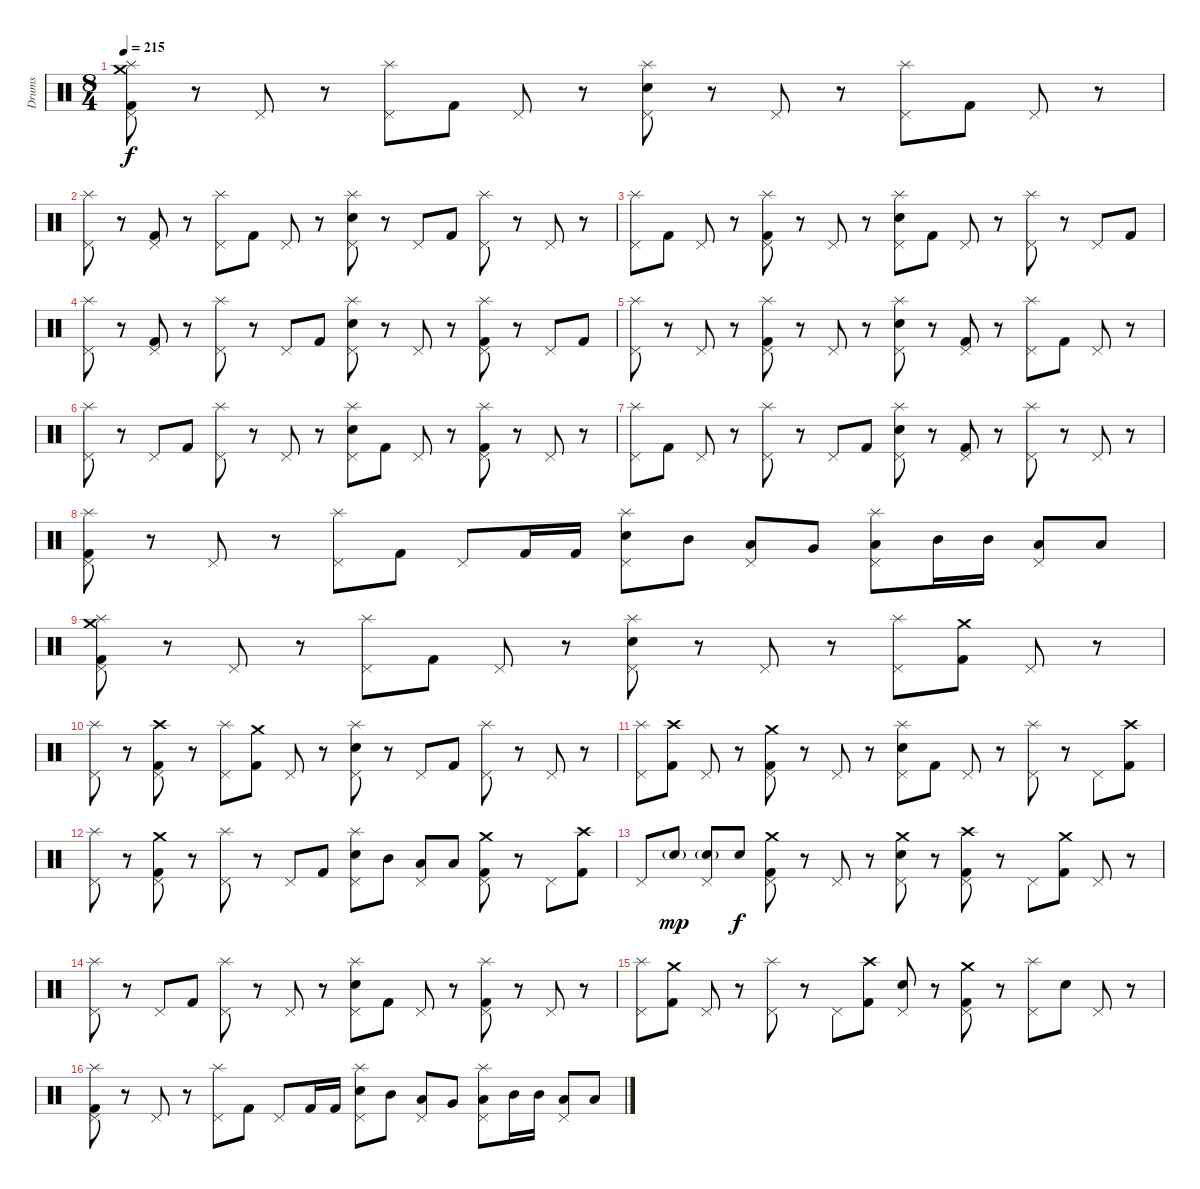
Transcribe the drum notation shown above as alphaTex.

\track ("Drums" "Drums") {instrument percussion}
\staff {score}
\articulation defaults
\ts (8 4)
\section ("" "")
\tempo 215
\clef neutral
\ks c
("Splash (hit)" "Crash medium (hit)" "Pedal Hi-Hat (hit)" "Kick (hit) 2").8{dy f} r.8 "Pedal Hi-Hat (hit)".8 r.8 ("Splash (hit)" "Pedal Hi-Hat (hit)").8 "Kick (hit) 2".8 "Pedal Hi-Hat (hit)".8 r.8 ("Splash (hit)" "Pedal Hi-Hat (hit)" "Electric Snare (hit)").8 r.8 "Pedal Hi-Hat (hit)".8 r.8 ("Splash (hit)" "Pedal Hi-Hat (hit)").8 "Kick (hit) 2".8 "Pedal Hi-Hat (hit)".8 r.8 |
("Splash (hit)" "Pedal Hi-Hat (hit)").8 r.8 ("Pedal Hi-Hat (hit)" "Kick (hit) 2").8 r.8 ("Splash (hit)" "Pedal Hi-Hat (hit)").8 "Kick (hit) 2".8 "Pedal Hi-Hat (hit)".8 r.8 ("Splash (hit)" "Pedal Hi-Hat (hit)" "Electric Snare (hit)").8 r.8 "Pedal Hi-Hat (hit)".8 "Kick (hit) 2".8 ("Splash (hit)" "Pedal Hi-Hat (hit)").8 r.8 "Pedal Hi-Hat (hit)".8 r.8 |
("Splash (hit)" "Pedal Hi-Hat (hit)").8 "Kick (hit) 2".8 "Pedal Hi-Hat (hit)".8 r.8 ("Splash (hit)" "Pedal Hi-Hat (hit)" "Kick (hit) 2").8 r.8 "Pedal Hi-Hat (hit)".8 r.8 ("Splash (hit)" "Pedal Hi-Hat (hit)" "Electric Snare (hit)").8 "Kick (hit) 2".8 "Pedal Hi-Hat (hit)".8 r.8 ("Splash (hit)" "Pedal Hi-Hat (hit)").8 r.8 "Pedal Hi-Hat (hit)".8 "Kick (hit) 2".8 |
("Splash (hit)" "Pedal Hi-Hat (hit)").8 r.8 ("Pedal Hi-Hat (hit)" "Kick (hit) 2").8 r.8 ("Splash (hit)" "Pedal Hi-Hat (hit)").8 r.8 "Pedal Hi-Hat (hit)".8 "Kick (hit) 2".8 ("Splash (hit)" "Pedal Hi-Hat (hit)" "Electric Snare (hit)").8 r.8 "Pedal Hi-Hat (hit)".8 r.8 ("Splash (hit)" "Pedal Hi-Hat (hit)" "Kick (hit) 2").8 r.8 "Pedal Hi-Hat (hit)".8 "Kick (hit) 2".8 |
("Splash (hit)" "Pedal Hi-Hat (hit)").8 r.8 "Pedal Hi-Hat (hit)".8 r.8 ("Splash (hit)" "Pedal Hi-Hat (hit)" "Kick (hit) 2").8 r.8 "Pedal Hi-Hat (hit)".8 r.8 ("Splash (hit)" "Pedal Hi-Hat (hit)" "Electric Snare (hit)").8 r.8 ("Pedal Hi-Hat (hit)" "Kick (hit) 2").8 r.8 ("Splash (hit)" "Pedal Hi-Hat (hit)").8 "Kick (hit) 2".8 "Pedal Hi-Hat (hit)".8 r.8 |
("Splash (hit)" "Pedal Hi-Hat (hit)").8 r.8 "Pedal Hi-Hat (hit)".8 "Kick (hit) 2".8 ("Splash (hit)" "Pedal Hi-Hat (hit)").8 r.8 "Pedal Hi-Hat (hit)".8 r.8 ("Splash (hit)" "Pedal Hi-Hat (hit)" "Electric Snare (hit)").8 "Kick (hit) 2".8 "Pedal Hi-Hat (hit)".8 r.8 ("Splash (hit)" "Pedal Hi-Hat (hit)" "Kick (hit) 2").8 r.8 "Pedal Hi-Hat (hit)".8 r.8 |
("Splash (hit)" "Pedal Hi-Hat (hit)").8 "Kick (hit) 2".8 "Pedal Hi-Hat (hit)".8 r.8 ("Splash (hit)" "Pedal Hi-Hat (hit)").8 r.8 "Pedal Hi-Hat (hit)".8 "Kick (hit) 2".8 ("Splash (hit)" "Pedal Hi-Hat (hit)" "Electric Snare (hit)").8 r.8 ("Pedal Hi-Hat (hit)" "Kick (hit) 2").8 r.8 ("Splash (hit)" "Pedal Hi-Hat (hit)").8 r.8 "Pedal Hi-Hat (hit)".8 r.8 |
("Splash (hit)" "Pedal Hi-Hat (hit)" "Kick (hit) 2").8 r.8 "Pedal Hi-Hat (hit)".8 r.8 ("Splash (hit)" "Pedal Hi-Hat (hit)").8 "Kick (hit) 2".8 "Pedal Hi-Hat (hit)".8 "Kick (hit) 2".16 "Kick (hit) 2".16 ("Splash (hit)" "Pedal Hi-Hat (hit)" "Electric Snare (hit)").8 "Mid Tom (hit)".8 ("Low Tom (hit)" "Pedal Hi-Hat (hit)").8 "Very Low Tom (hit)".8 ("Splash (hit)" "Pedal Hi-Hat (hit)" "Low Floor Tom (hit)").8 "Mid Tom (hit)".16 "Mid Tom (hit)".16 ("Low Tom (hit)" "Pedal Hi-Hat (hit)").8 "Low Floor Tom (hit)".8 |
("Splash (hit)" "Crash medium (hit)" "Pedal Hi-Hat (hit)" "Kick (hit) 2").8 r.8 "Pedal Hi-Hat (hit)".8 r.8 ("Splash (hit)" "Pedal Hi-Hat (hit)").8 "Kick (hit) 2".8 "Pedal Hi-Hat (hit)".8 r.8 ("Splash (hit)" "Pedal Hi-Hat (hit)" "Electric Snare (hit)").8 r.8 "Pedal Hi-Hat (hit)".8 r.8 ("Splash (hit)" "Pedal Hi-Hat (hit)").8 ("Crash medium (hit)" "Kick (hit) 2").8 "Pedal Hi-Hat (hit)".8 r.8 |
("Splash (hit)" "Pedal Hi-Hat (hit)").8 r.8 ("Crash high (hit)" "Pedal Hi-Hat (hit)" "Kick (hit) 2").8 r.8 ("Splash (hit)" "Pedal Hi-Hat (hit)").8 ("Crash medium (hit)" "Kick (hit) 2").8 "Pedal Hi-Hat (hit)".8 r.8 ("Splash (hit)" "Pedal Hi-Hat (hit)" "Electric Snare (hit)").8 r.8 "Pedal Hi-Hat (hit)".8 "Kick (hit) 2".8 ("Splash (hit)" "Pedal Hi-Hat (hit)").8 r.8 "Pedal Hi-Hat (hit)".8 r.8 |
("Splash (hit)" "Pedal Hi-Hat (hit)").8 ("Crash high (hit)" "Kick (hit) 2").8 "Pedal Hi-Hat (hit)".8 r.8 ("Crash medium (hit)" "Pedal Hi-Hat (hit)" "Kick (hit) 2").8 r.8 "Pedal Hi-Hat (hit)".8 r.8 ("Splash (hit)" "Pedal Hi-Hat (hit)" "Electric Snare (hit)").8 "Kick (hit) 2".8 "Pedal Hi-Hat (hit)".8 r.8 ("Splash (hit)" "Pedal Hi-Hat (hit)").8 r.8 "Pedal Hi-Hat (hit)".8 ("Crash high (hit)" "Kick (hit) 2").8 |
("Splash (hit)" "Pedal Hi-Hat (hit)").8 r.8 ("Crash medium (hit)" "Pedal Hi-Hat (hit)" "Kick (hit) 2").8 r.8 ("Splash (hit)" "Pedal Hi-Hat (hit)").8 r.8 "Pedal Hi-Hat (hit)".8 "Kick (hit) 2".8 ("Splash (hit)" "Pedal Hi-Hat (hit)" "Electric Snare (hit)").8 "Mid Tom (hit)".8 ("Low Tom (hit)" "Pedal Hi-Hat (hit)").8 "Low Floor Tom (hit)".8 ("Crash medium (hit)" "Pedal Hi-Hat (hit)" "Kick (hit) 2").8 r.8 "Pedal Hi-Hat (hit)".8 ("Crash high (hit)" "Kick (hit) 2").8 |
"Pedal Hi-Hat (hit)".8 "Electric Snare (hit)"{g}.8{dy mp} ("Pedal Hi-Hat (hit)" "Electric Snare (hit)"{g}).8 "Electric Snare (hit)".8{dy f} ("Crash medium (hit)" "Pedal Hi-Hat (hit)" "Kick (hit) 2").8 r.8 "Pedal Hi-Hat (hit)".8 r.8 ("Crash medium (hit)" "Pedal Hi-Hat (hit)" "Electric Snare (hit)").8 r.8 ("Crash high (hit)" "Pedal Hi-Hat (hit)" "Kick (hit) 2").8 r.8 "Pedal Hi-Hat (hit)".8 ("Crash medium (hit)" "Kick (hit) 2").8 "Pedal Hi-Hat (hit)".8 r.8 |
("Splash (hit)" "Pedal Hi-Hat (hit)").8 r.8 "Pedal Hi-Hat (hit)".8 "Kick (hit) 2".8 ("Splash (hit)" "Pedal Hi-Hat (hit)").8 r.8 "Pedal Hi-Hat (hit)".8 r.8 ("Splash (hit)" "Pedal Hi-Hat (hit)" "Electric Snare (hit)").8 "Kick (hit) 2".8 "Pedal Hi-Hat (hit)".8 r.8 ("Splash (hit)" "Pedal Hi-Hat (hit)" "Kick (hit) 2").8 r.8 "Pedal Hi-Hat (hit)".8 r.8 |
("Splash (hit)" "Pedal Hi-Hat (hit)").8 ("Crash medium (hit)" "Kick (hit) 2").8 "Pedal Hi-Hat (hit)".8 r.8 ("Splash (hit)" "Pedal Hi-Hat (hit)").8 r.8 "Pedal Hi-Hat (hit)".8 ("Crash high (hit)" "Kick (hit) 2").8 ("Pedal Hi-Hat (hit)" "Electric Snare (hit)").8 r.8 ("Crash medium (hit)" "Pedal Hi-Hat (hit)" "Kick (hit) 2").8 r.8 ("Splash (hit)" "Pedal Hi-Hat (hit)").8 "Electric Snare (hit)".8 "Pedal Hi-Hat (hit)".8 r.8 |
("Splash (hit)" "Pedal Hi-Hat (hit)" "Kick (hit) 2").8 r.8 "Pedal Hi-Hat (hit)".8 r.8 ("Splash (hit)" "Pedal Hi-Hat (hit)").8 "Kick (hit) 2".8 "Pedal Hi-Hat (hit)".8 "Kick (hit) 2".16 "Kick (hit) 2".16 ("Splash (hit)" "Pedal Hi-Hat (hit)" "Electric Snare (hit)").8 "Mid Tom (hit)".8 ("Low Tom (hit)" "Pedal Hi-Hat (hit)").8 "Very Low Tom (hit)".8 ("Splash (hit)" "Pedal Hi-Hat (hit)" "Low Floor Tom (hit)").8 "Mid Tom (hit)".16 "Mid Tom (hit)".16 ("Low Tom (hit)" "Pedal Hi-Hat (hit)").8 "Low Floor Tom (hit)".8
